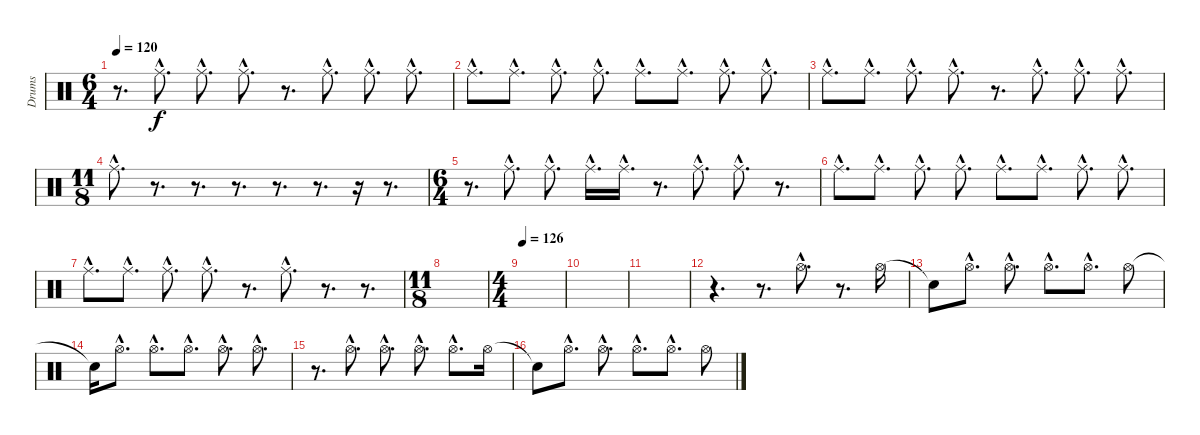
\track ("Drums" "Drums") {instrument percussion}
\staff {score}
\articulation defaults
\ts (6 4)
\tempo 120
\clef neutral
\ks c
r.8{d dy f} "Ride (middle)"{hac}.8{d} "Ride (middle)"{hac}.8{d} "Ride (middle)"{hac}.8{d} r.8{d} "Ride (middle)"{hac}.8{d} "Ride (middle)"{hac}.8{d} "Ride (middle)"{hac}.8{d} |
"Ride (middle)"{hac}.8{d} "Ride (middle)"{hac}.8{d} "Ride (middle)"{hac}.8{d} "Ride (middle)"{hac}.8{d} "Ride (middle)"{hac}.8{d} "Ride (middle)"{hac}.8{d} "Ride (middle)"{hac}.8{d} "Ride (middle)"{hac}.8{d} |
"Ride (middle)"{hac}.8{d} "Ride (middle)"{hac}.8{d} "Ride (middle)"{hac}.8{d} "Ride (middle)"{hac}.8{d} r.8{d} "Ride (middle)"{hac}.8{d} "Ride (middle)"{hac}.8{d} "Ride (middle)"{hac}.8{d} |
\ts (11 8)
"Ride (middle)"{hac}.8{d} r.8{d} r.8{d} r.8{d} r.8{d} r.8{d} r.16 r.8{d} |
\ts (6 4)
r.8{d} "Ride (middle)"{hac}.8{d} "Ride (middle)"{hac}.8{d} "Ride (middle)"{hac}.16{d} "Ride (middle)"{hac}.16{d} r.8{d} "Ride (middle)"{hac}.8{d} "Ride (middle)"{hac}.8{d} r.8{d} |
"Ride (middle)"{hac}.8{d} "Ride (middle)"{hac}.8{d} "Ride (middle)"{hac}.8{d} "Ride (middle)"{hac}.8{d} "Ride (middle)"{hac}.8{d} "Ride (middle)"{hac}.8{d} "Ride (middle)"{hac}.8{d} "Ride (middle)"{hac}.8{d} |
"Ride (middle)"{hac}.8{d} "Ride (middle)"{hac}.8{d} "Ride (middle)"{hac}.8{d} "Ride (middle)"{hac}.8{d} r.8{d} "Ride (middle)"{hac}.8{d} r.8{d} r.8{d} |
\ts (11 8)
|
\ts (4 4)
\section ("" "")
\tempo 126
|
|
|
r.4{d} r.8{d} "Hi-Hat (open)"{hac}.8{d} r.8{d} "Hi-Hat (open)".16 |
"Snare (hit)"{t}.8 "Hi-Hat (open)"{hac}.8{d} "Hi-Hat (open)"{hac}.8{d} "Hi-Hat (open)"{hac}.8{d} "Hi-Hat (open)"{hac}.8{d} "Hi-Hat (open)".8 |
"Snare (hit)"{t}.16 "Hi-Hat (open)"{hac}.8{d} "Hi-Hat (open)"{hac}.8{d} "Hi-Hat (open)"{hac}.8{d} "Hi-Hat (open)"{hac}.8{d} "Hi-Hat (open)"{hac}.8{d} |
r.8{d} "Hi-Hat (open)"{hac}.8{d} "Hi-Hat (open)"{hac}.8{d} "Hi-Hat (open)"{hac}.8{d} "Hi-Hat (open)"{hac}.8{d} "Hi-Hat (open)".16 |
"Snare (hit)"{t}.8 "Hi-Hat (open)"{hac}.8{d} "Hi-Hat (open)"{hac}.8{d} "Hi-Hat (open)"{hac}.8{d} "Hi-Hat (open)"{hac}.8{d} "Hi-Hat (open)".8
